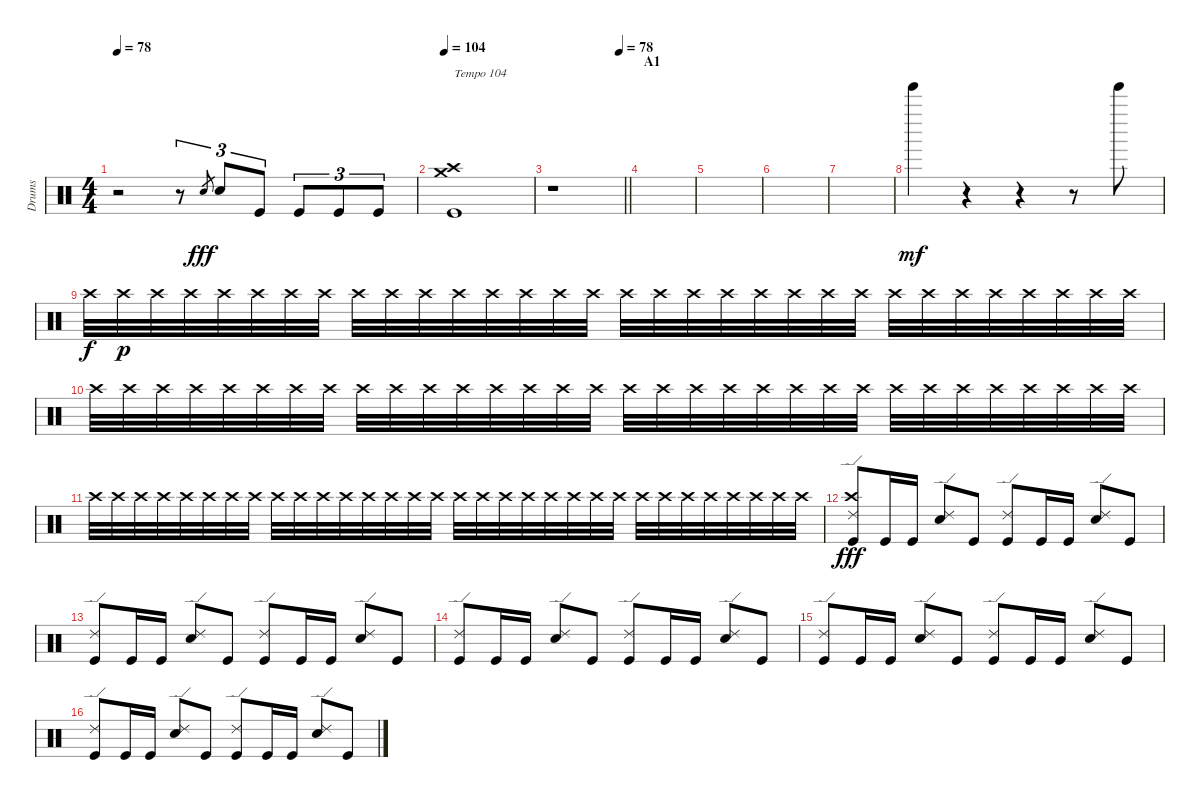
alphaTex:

\track ("Drums" "Drums") {instrument percussion}
\staff {score}
\articulation defaults
\ts (4 4)
\tempo 78
\clef neutral
\ks c
r.2{dy fff} r.8{tu (3 2)} "Electric Snare (hit)".8{gr} "Electric Snare (hit)".8{tu (3 2)} "Kick (hit)".8{tu (3 2)} "Kick (hit)".8{tu (3 2)} "Kick (hit)".8{tu (3 2)} "Kick (hit)".8{tu (3 2)} |
\tempo 104
("Crash medium (hit)" "Crash high (hit)" "Kick (hit)").1{txt "Tempo 104"} |
\tempo (78 0.9375)
\barLineRight lightlight
r.1 |
\section ("" "A1")
|
|
|
|
"Tinkle Bell (hit)".4{dy mf} r.4 r.4 r.8 "Tinkle Bell (hit)".8 |
"Crash high (hit)".32{dy f} "Crash high (hit)".32{dy p} "Crash high (hit)".32 "Crash high (hit)".32 "Crash high (hit)".32 "Crash high (hit)".32 "Crash high (hit)".32 "Crash high (hit)".32 "Crash high (hit)".32 "Crash high (hit)".32 "Crash high (hit)".32 "Crash high (hit)".32 "Crash high (hit)".32 "Crash high (hit)".32 "Crash high (hit)".32 "Crash high (hit)".32 "Crash high (hit)".32 "Crash high (hit)".32 "Crash high (hit)".32 "Crash high (hit)".32 "Crash high (hit)".32 "Crash high (hit)".32 "Crash high (hit)".32 "Crash high (hit)".32 "Crash high (hit)".32 "Crash high (hit)".32 "Crash high (hit)".32 "Crash high (hit)".32 "Crash high (hit)".32 "Crash high (hit)".32 "Crash high (hit)".32 "Crash high (hit)".32 |
"Crash high (hit)".32 "Crash high (hit)".32 "Crash high (hit)".32 "Crash high (hit)".32 "Crash high (hit)".32 "Crash high (hit)".32 "Crash high (hit)".32 "Crash high (hit)".32 "Crash high (hit)".32 "Crash high (hit)".32 "Crash high (hit)".32 "Crash high (hit)".32 "Crash high (hit)".32 "Crash high (hit)".32 "Crash high (hit)".32 "Crash high (hit)".32 "Crash high (hit)".32 "Crash high (hit)".32 "Crash high (hit)".32 "Crash high (hit)".32 "Crash high (hit)".32 "Crash high (hit)".32 "Crash high (hit)".32 "Crash high (hit)".32 "Crash high (hit)".32 "Crash high (hit)".32 "Crash high (hit)".32 "Crash high (hit)".32 "Crash high (hit)".32 "Crash high (hit)".32 "Crash high (hit)".32 "Crash high (hit)".32 |
"Crash high (hit)".32 "Crash high (hit)".32 "Crash high (hit)".32 "Crash high (hit)".32 "Crash high (hit)".32 "Crash high (hit)".32 "Crash high (hit)".32 "Crash high (hit)".32 "Crash high (hit)".32 "Crash high (hit)".32 "Crash high (hit)".32 "Crash high (hit)".32 "Crash high (hit)".32 "Crash high (hit)".32 "Crash high (hit)".32 "Crash high (hit)".32 "Crash high (hit)".32 "Crash high (hit)".32 "Crash high (hit)".32 "Crash high (hit)".32 "Crash high (hit)".32 "Crash high (hit)".32 "Crash high (hit)".32 "Crash high (hit)".32 "Crash high (hit)".32 "Crash high (hit)".32 "Crash high (hit)".32 "Crash high (hit)".32 "Crash high (hit)".32 "Crash high (hit)".32 "Crash high (hit)".32 "Crash high (hit)".32 |
("Ride (edge) 2" "Crash high (hit)" "Kick (hit)").8{dy fff} "Kick (hit)".16 "Kick (hit)".16 ("Ride (edge) 2" "Electric Snare (hit)").8 "Kick (hit)".8 ("Ride (edge) 2" "Kick (hit)").8 "Kick (hit)".16 "Kick (hit)".16 ("Ride (edge) 2" "Electric Snare (hit)").8 "Kick (hit)".8 |
("Ride (edge) 2" "Kick (hit)").8 "Kick (hit)".16 "Kick (hit)".16 ("Ride (edge) 2" "Electric Snare (hit)").8 "Kick (hit)".8 ("Ride (edge) 2" "Kick (hit)").8 "Kick (hit)".16 "Kick (hit)".16 ("Ride (edge) 2" "Electric Snare (hit)").8 "Kick (hit)".8 |
("Ride (edge) 2" "Kick (hit)").8 "Kick (hit)".16 "Kick (hit)".16 ("Ride (edge) 2" "Electric Snare (hit)").8 "Kick (hit)".8 ("Ride (edge) 2" "Kick (hit)").8 "Kick (hit)".16 "Kick (hit)".16 ("Ride (edge) 2" "Electric Snare (hit)").8 "Kick (hit)".8 |
("Ride (edge) 2" "Kick (hit)").8 "Kick (hit)".16 "Kick (hit)".16 ("Ride (edge) 2" "Electric Snare (hit)").8 "Kick (hit)".8 ("Ride (edge) 2" "Kick (hit)").8 "Kick (hit)".16 "Kick (hit)".16 ("Ride (edge) 2" "Electric Snare (hit)").8 "Kick (hit)".8 |
("Ride (edge) 2" "Kick (hit)").8 "Kick (hit)".16 "Kick (hit)".16 ("Ride (edge) 2" "Electric Snare (hit)").8 "Kick (hit)".8 ("Ride (edge) 2" "Kick (hit)").8 "Kick (hit)".16 "Kick (hit)".16 ("Ride (edge) 2" "Electric Snare (hit)").8 "Kick (hit)".8
